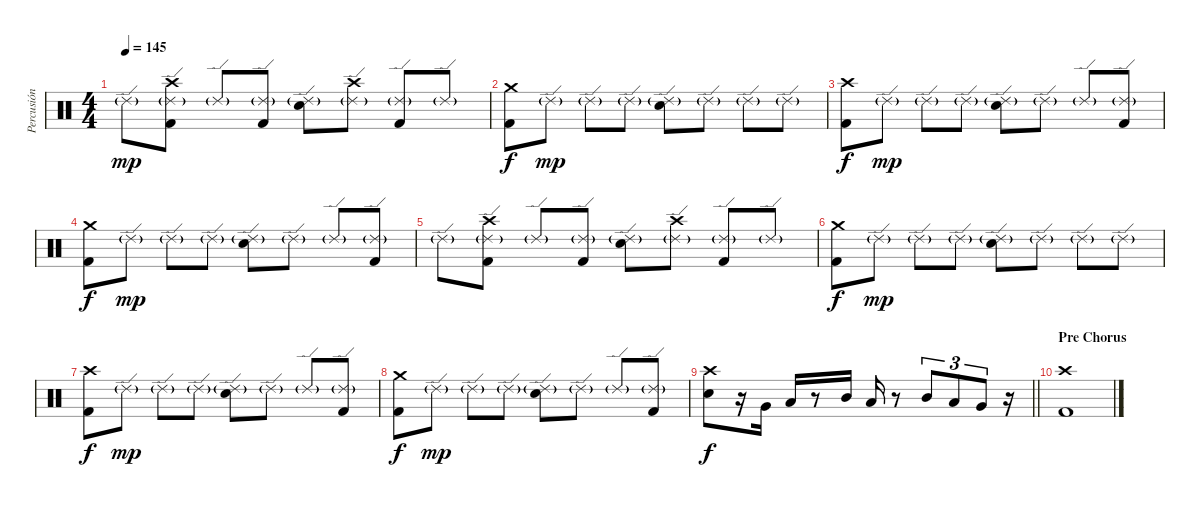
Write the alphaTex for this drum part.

\track ("Percusión" "Percusión") {instrument percussion}
\staff {score}
\articulation defaults
\ts (4 4)
\tempo 145
\clef neutral
\ks c "Ride (edge) 2"{g}.8{dy mp}
("Kick (hit) 2" "Ride (edge) 2"{g} "Crash high (hit)").8 "Ride (edge) 2"{g}.8 ("Kick (hit) 2" "Ride (edge) 2"{g}).8 ("Electric Snare (hit)" "Ride (edge) 2"{g}).8 ("Ride (edge) 2"{g} "Crash high (hit)").8 ("Kick (hit) 2" "Ride (edge) 2"{g}).8 "Ride (edge) 2"{g}.8 |
("Kick (hit) 2" "Crash medium (hit)").8{dy f} "Ride (edge) 2"{g}.8{dy mp} "Ride (edge) 2"{g}.8 "Ride (edge) 2"{g}.8 ("Electric Snare (hit)" "Ride (edge) 2"{g}).8 "Ride (edge) 2"{g}.8 "Ride (edge) 2"{g}.8 "Ride (edge) 2"{g}.8 |
("Kick (hit) 2" "Crash high (hit)").8{dy f} "Ride (edge) 2"{g}.8{dy mp} "Ride (edge) 2"{g}.8 "Ride (edge) 2"{g}.8 ("Electric Snare (hit)" "Ride (edge) 2"{g}).8 "Ride (edge) 2"{g}.8 "Ride (edge) 2"{g}.8 ("Kick (hit) 2" "Ride (edge) 2"{g}).8 |
("Kick (hit) 2" "Crash medium (hit)").8{dy f} "Ride (edge) 2"{g}.8{dy mp} "Ride (edge) 2"{g}.8 "Ride (edge) 2"{g}.8 ("Electric Snare (hit)" "Ride (edge) 2"{g}).8 "Ride (edge) 2"{g}.8 "Ride (edge) 2"{g}.8 ("Kick (hit) 2" "Ride (edge) 2"{g}).8 |
"Ride (edge) 2"{g}.8 ("Kick (hit) 2" "Ride (edge) 2"{g} "Crash high (hit)").8 "Ride (edge) 2"{g}.8 ("Kick (hit) 2" "Ride (edge) 2"{g}).8 ("Electric Snare (hit)" "Ride (edge) 2"{g}).8 ("Ride (edge) 2"{g} "Crash high (hit)").8 ("Kick (hit) 2" "Ride (edge) 2"{g}).8 "Ride (edge) 2"{g}.8 |
("Kick (hit) 2" "Crash medium (hit)").8{dy f} "Ride (edge) 2"{g}.8{dy mp} "Ride (edge) 2"{g}.8 "Ride (edge) 2"{g}.8 ("Electric Snare (hit)" "Ride (edge) 2"{g}).8 "Ride (edge) 2"{g}.8 "Ride (edge) 2"{g}.8 "Ride (edge) 2"{g}.8 |
("Kick (hit) 2" "Crash high (hit)").8{dy f} "Ride (edge) 2"{g}.8{dy mp} "Ride (edge) 2"{g}.8 "Ride (edge) 2"{g}.8 ("Electric Snare (hit)" "Ride (edge) 2"{g}).8 "Ride (edge) 2"{g}.8 "Ride (edge) 2"{g}.8 ("Kick (hit) 2" "Ride (edge) 2"{g}).8 |
("Kick (hit) 2" "Crash medium (hit)").8{dy f} "Ride (edge) 2"{g}.8{dy mp} "Ride (edge) 2"{g}.8 "Ride (edge) 2"{g}.8 ("Electric Snare (hit)" "Ride (edge) 2"{g}).8 "Ride (edge) 2"{g}.8 "Ride (edge) 2"{g}.8 ("Kick (hit) 2" "Ride (edge) 2"{g}).8 |
\barLineRight lightlight
("Electric Snare (hit)" "Crash high (hit)").8{dy f} r.16 "Very Low Tom (hit)".16 "Low Tom (hit)".16 r.8 "Mid Tom (hit)".16 "Low Tom (hit)".16 r.8 "Mid Tom (hit)".8{tu (3 2)} "Low Tom (hit)".8{tu (3 2)} "Very Low Tom (hit)".8{tu (3 2)} r.16 |
\section ("" "Pre Chorus")
("Kick (hit) 2" "Crash high (hit)").1
